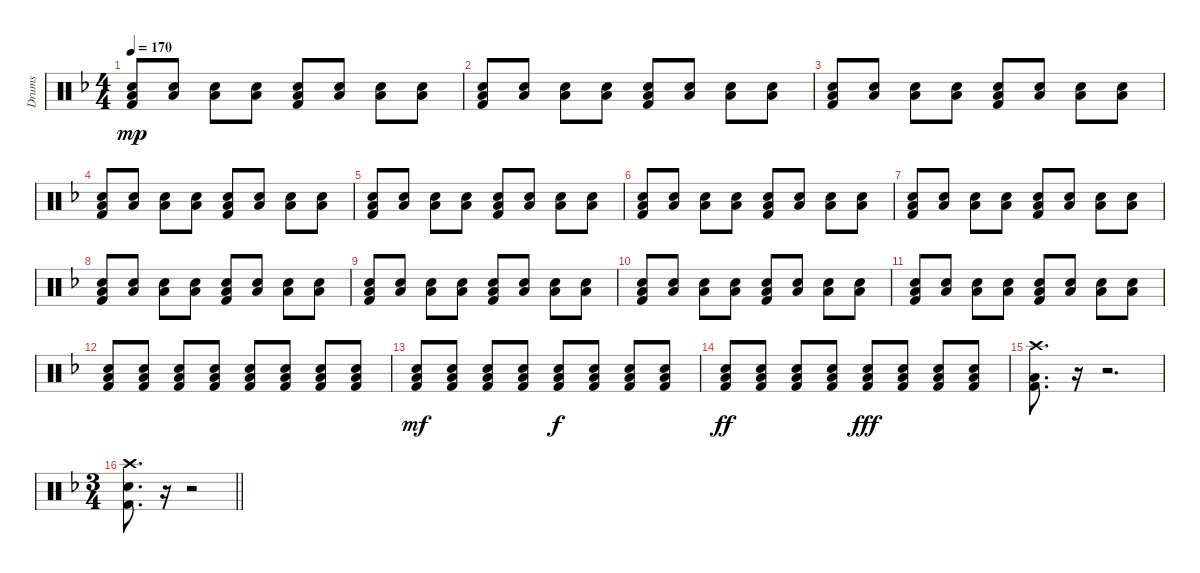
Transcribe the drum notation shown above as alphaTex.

\track ("Drums" "Drums") {instrument percussion}
\staff {score}
\articulation defaults
\ts (4 4)
\tempo 170
\clef neutral
\ks f
("Low Floor Tom (hit)" "Electric Snare (hit)" "Kick (hit) 2").8{dy mp} ("Low Floor Tom (hit)" "Electric Snare (hit)").8 ("Low Floor Tom (hit)" "Electric Snare (hit)").8 ("Low Floor Tom (hit)" "Electric Snare (hit)").8 ("Low Floor Tom (hit)" "Electric Snare (hit)" "Kick (hit) 2").8 ("Low Floor Tom (hit)" "Electric Snare (hit)").8 ("Low Floor Tom (hit)" "Electric Snare (hit)").8 ("Low Floor Tom (hit)" "Electric Snare (hit)").8 |
("Low Floor Tom (hit)" "Electric Snare (hit)" "Kick (hit) 2").8 ("Low Floor Tom (hit)" "Electric Snare (hit)").8 ("Low Floor Tom (hit)" "Electric Snare (hit)").8 ("Low Floor Tom (hit)" "Electric Snare (hit)").8 ("Low Floor Tom (hit)" "Electric Snare (hit)" "Kick (hit) 2").8 ("Low Floor Tom (hit)" "Electric Snare (hit)").8 ("Low Floor Tom (hit)" "Electric Snare (hit)").8 ("Low Floor Tom (hit)" "Electric Snare (hit)").8 |
("Low Floor Tom (hit)" "Electric Snare (hit)" "Kick (hit) 2").8 ("Low Floor Tom (hit)" "Electric Snare (hit)").8 ("Low Floor Tom (hit)" "Electric Snare (hit)").8 ("Low Floor Tom (hit)" "Electric Snare (hit)").8 ("Low Floor Tom (hit)" "Electric Snare (hit)" "Kick (hit) 2").8 ("Low Floor Tom (hit)" "Electric Snare (hit)").8 ("Low Floor Tom (hit)" "Electric Snare (hit)").8 ("Low Floor Tom (hit)" "Electric Snare (hit)").8 |
("Low Floor Tom (hit)" "Electric Snare (hit)" "Kick (hit) 2").8 ("Low Floor Tom (hit)" "Electric Snare (hit)").8 ("Low Floor Tom (hit)" "Electric Snare (hit)").8 ("Low Floor Tom (hit)" "Electric Snare (hit)").8 ("Low Floor Tom (hit)" "Electric Snare (hit)" "Kick (hit) 2").8 ("Low Floor Tom (hit)" "Electric Snare (hit)").8 ("Low Floor Tom (hit)" "Electric Snare (hit)").8 ("Low Floor Tom (hit)" "Electric Snare (hit)").8 |
("Low Floor Tom (hit)" "Electric Snare (hit)" "Kick (hit) 2").8 ("Low Floor Tom (hit)" "Electric Snare (hit)").8 ("Low Floor Tom (hit)" "Electric Snare (hit)").8 ("Low Floor Tom (hit)" "Electric Snare (hit)").8 ("Low Floor Tom (hit)" "Electric Snare (hit)" "Kick (hit) 2").8 ("Low Floor Tom (hit)" "Electric Snare (hit)").8 ("Low Floor Tom (hit)" "Electric Snare (hit)").8 ("Low Floor Tom (hit)" "Electric Snare (hit)").8 |
("Low Floor Tom (hit)" "Electric Snare (hit)" "Kick (hit) 2").8 ("Low Floor Tom (hit)" "Electric Snare (hit)").8 ("Low Floor Tom (hit)" "Electric Snare (hit)").8 ("Low Floor Tom (hit)" "Electric Snare (hit)").8 ("Low Floor Tom (hit)" "Electric Snare (hit)" "Kick (hit) 2").8 ("Low Floor Tom (hit)" "Electric Snare (hit)").8 ("Low Floor Tom (hit)" "Electric Snare (hit)").8 ("Low Floor Tom (hit)" "Electric Snare (hit)").8 |
("Low Floor Tom (hit)" "Electric Snare (hit)" "Kick (hit) 2").8 ("Low Floor Tom (hit)" "Electric Snare (hit)").8 ("Low Floor Tom (hit)" "Electric Snare (hit)").8 ("Low Floor Tom (hit)" "Electric Snare (hit)").8 ("Low Floor Tom (hit)" "Electric Snare (hit)" "Kick (hit) 2").8 ("Low Floor Tom (hit)" "Electric Snare (hit)").8 ("Low Floor Tom (hit)" "Electric Snare (hit)").8 ("Low Floor Tom (hit)" "Electric Snare (hit)").8 |
("Low Floor Tom (hit)" "Electric Snare (hit)" "Kick (hit) 2").8 ("Low Floor Tom (hit)" "Electric Snare (hit)").8 ("Low Floor Tom (hit)" "Electric Snare (hit)").8 ("Low Floor Tom (hit)" "Electric Snare (hit)").8 ("Low Floor Tom (hit)" "Electric Snare (hit)" "Kick (hit) 2").8 ("Low Floor Tom (hit)" "Electric Snare (hit)").8 ("Low Floor Tom (hit)" "Electric Snare (hit)").8 ("Low Floor Tom (hit)" "Electric Snare (hit)").8 |
("Low Floor Tom (hit)" "Electric Snare (hit)" "Kick (hit) 2").8 ("Low Floor Tom (hit)" "Electric Snare (hit)").8 ("Low Floor Tom (hit)" "Electric Snare (hit)").8 ("Low Floor Tom (hit)" "Electric Snare (hit)").8 ("Low Floor Tom (hit)" "Electric Snare (hit)" "Kick (hit) 2").8 ("Low Floor Tom (hit)" "Electric Snare (hit)").8 ("Low Floor Tom (hit)" "Electric Snare (hit)").8 ("Low Floor Tom (hit)" "Electric Snare (hit)").8 |
("Low Floor Tom (hit)" "Electric Snare (hit)" "Kick (hit) 2").8 ("Low Floor Tom (hit)" "Electric Snare (hit)").8 ("Low Floor Tom (hit)" "Electric Snare (hit)").8 ("Low Floor Tom (hit)" "Electric Snare (hit)").8 ("Low Floor Tom (hit)" "Electric Snare (hit)" "Kick (hit) 2").8 ("Low Floor Tom (hit)" "Electric Snare (hit)").8 ("Low Floor Tom (hit)" "Electric Snare (hit)").8 ("Low Floor Tom (hit)" "Electric Snare (hit)").8 |
("Low Floor Tom (hit)" "Electric Snare (hit)" "Kick (hit) 2").8 ("Low Floor Tom (hit)" "Electric Snare (hit)").8 ("Low Floor Tom (hit)" "Electric Snare (hit)").8 ("Low Floor Tom (hit)" "Electric Snare (hit)").8 ("Low Floor Tom (hit)" "Electric Snare (hit)" "Kick (hit) 2").8 ("Low Floor Tom (hit)" "Electric Snare (hit)").8 ("Low Floor Tom (hit)" "Electric Snare (hit)").8 ("Low Floor Tom (hit)" "Electric Snare (hit)").8 |
("Low Floor Tom (hit)" "Electric Snare (hit)" "Kick (hit) 2").8 ("Low Floor Tom (hit)" "Electric Snare (hit)" "Kick (hit) 2").8 ("Low Floor Tom (hit)" "Electric Snare (hit)" "Kick (hit) 2").8 ("Low Floor Tom (hit)" "Electric Snare (hit)" "Kick (hit) 2").8 ("Low Floor Tom (hit)" "Electric Snare (hit)" "Kick (hit) 2").8 ("Low Floor Tom (hit)" "Electric Snare (hit)" "Kick (hit) 2").8 ("Low Floor Tom (hit)" "Electric Snare (hit)" "Kick (hit) 2").8 ("Low Floor Tom (hit)" "Electric Snare (hit)" "Kick (hit) 2").8 |
("Low Floor Tom (hit)" "Electric Snare (hit)" "Kick (hit) 2").8{dy mf} ("Low Floor Tom (hit)" "Electric Snare (hit)" "Kick (hit) 2").8 ("Low Floor Tom (hit)" "Electric Snare (hit)" "Kick (hit) 2").8 ("Low Floor Tom (hit)" "Electric Snare (hit)" "Kick (hit) 2").8 ("Low Floor Tom (hit)" "Electric Snare (hit)" "Kick (hit) 2").8{dy f} ("Low Floor Tom (hit)" "Electric Snare (hit)" "Kick (hit) 2").8 ("Low Floor Tom (hit)" "Electric Snare (hit)" "Kick (hit) 2").8 ("Low Floor Tom (hit)" "Electric Snare (hit)" "Kick (hit) 2").8 |
("Low Floor Tom (hit)" "Electric Snare (hit)" "Kick (hit) 2").8{dy ff} ("Low Floor Tom (hit)" "Electric Snare (hit)" "Kick (hit) 2").8 ("Low Floor Tom (hit)" "Electric Snare (hit)" "Kick (hit) 2").8 ("Low Floor Tom (hit)" "Electric Snare (hit)" "Kick (hit) 2").8 ("Low Floor Tom (hit)" "Electric Snare (hit)" "Kick (hit) 2").8{dy fff} ("Low Floor Tom (hit)" "Electric Snare (hit)" "Kick (hit) 2").8 ("Low Floor Tom (hit)" "Electric Snare (hit)" "Kick (hit) 2").8 ("Low Floor Tom (hit)" "Electric Snare (hit)" "Kick (hit) 2").8 |
("Crash high (hit)" "Low Floor Tom (hit)" "Kick (hit) 2").8{d} r.16 r.2{d} |
\ts (3 4)
\barLineRight lightlight
("Crash high (hit)" "Electric Snare (hit)" "Kick (hit) 2").8{d} r.16 r.2
